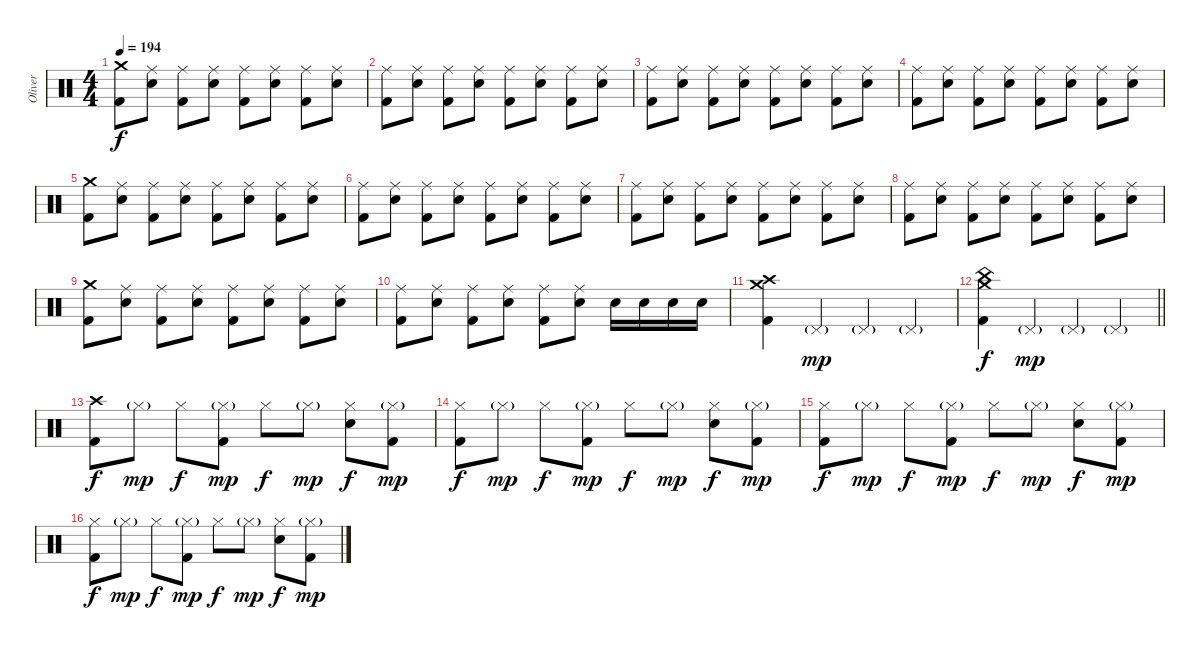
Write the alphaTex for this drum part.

\track ("Oliver" "Oliver") {instrument percussion}
\staff {score}
\articulation defaults
\ts (4 4)
\tempo 194
\clef neutral
\ks c
("Crash medium (hit)" "Kick (hit) 2").8{dy f} ("Ride (middle)" "Electric Snare (hit)").8 ("Ride (middle)" "Kick (hit) 2").8 ("Ride (middle)" "Electric Snare (hit)").8 ("Ride (middle)" "Kick (hit) 2").8 ("Ride (middle)" "Electric Snare (hit)").8 ("Ride (middle)" "Kick (hit) 2").8 ("Ride (middle)" "Electric Snare (hit)").8 |
("Ride (middle)" "Kick (hit) 2").8 ("Ride (middle)" "Electric Snare (hit)").8 ("Ride (middle)" "Kick (hit) 2").8 ("Ride (middle)" "Electric Snare (hit)").8 ("Ride (middle)" "Kick (hit) 2").8 ("Ride (middle)" "Electric Snare (hit)").8 ("Ride (middle)" "Kick (hit) 2").8 ("Ride (middle)" "Electric Snare (hit)").8 |
("Ride (middle)" "Kick (hit) 2").8 ("Ride (middle)" "Electric Snare (hit)").8 ("Ride (middle)" "Kick (hit) 2").8 ("Ride (middle)" "Electric Snare (hit)").8 ("Ride (middle)" "Kick (hit) 2").8 ("Ride (middle)" "Electric Snare (hit)").8 ("Ride (middle)" "Kick (hit) 2").8 ("Ride (middle)" "Electric Snare (hit)").8 |
("Ride (middle)" "Kick (hit) 2").8 ("Ride (middle)" "Electric Snare (hit)").8 ("Ride (middle)" "Kick (hit) 2").8 ("Ride (middle)" "Electric Snare (hit)").8 ("Ride (middle)" "Kick (hit) 2").8 ("Ride (middle)" "Electric Snare (hit)").8 ("Ride (middle)" "Kick (hit) 2").8 ("Ride (middle)" "Electric Snare (hit)").8 |
("Crash medium (hit)" "Kick (hit) 2").8 ("Ride (middle)" "Electric Snare (hit)").8 ("Ride (middle)" "Kick (hit) 2").8 ("Ride (middle)" "Electric Snare (hit)").8 ("Ride (middle)" "Kick (hit) 2").8 ("Ride (middle)" "Electric Snare (hit)").8 ("Ride (middle)" "Kick (hit) 2").8 ("Ride (middle)" "Electric Snare (hit)").8 |
("Ride (middle)" "Kick (hit) 2").8 ("Ride (middle)" "Electric Snare (hit)").8 ("Ride (middle)" "Kick (hit) 2").8 ("Ride (middle)" "Electric Snare (hit)").8 ("Ride (middle)" "Kick (hit) 2").8 ("Ride (middle)" "Electric Snare (hit)").8 ("Ride (middle)" "Kick (hit) 2").8 ("Ride (middle)" "Electric Snare (hit)").8 |
("Ride (middle)" "Kick (hit) 2").8 ("Ride (middle)" "Electric Snare (hit)").8 ("Ride (middle)" "Kick (hit) 2").8 ("Ride (middle)" "Electric Snare (hit)").8 ("Ride (middle)" "Kick (hit) 2").8 ("Ride (middle)" "Electric Snare (hit)").8 ("Ride (middle)" "Kick (hit) 2").8 ("Ride (middle)" "Electric Snare (hit)").8 |
("Ride (middle)" "Kick (hit) 2").8 ("Ride (middle)" "Electric Snare (hit)").8 ("Ride (middle)" "Kick (hit) 2").8 ("Ride (middle)" "Electric Snare (hit)").8 ("Ride (middle)" "Kick (hit) 2").8 ("Ride (middle)" "Electric Snare (hit)").8 ("Ride (middle)" "Kick (hit) 2").8 ("Ride (middle)" "Electric Snare (hit)").8 |
("Crash medium (hit)" "Kick (hit) 2").8 ("Ride (middle)" "Electric Snare (hit)").8 ("Ride (middle)" "Kick (hit) 2").8 ("Ride (middle)" "Electric Snare (hit)").8 ("Ride (middle)" "Kick (hit) 2").8 ("Ride (middle)" "Electric Snare (hit)").8 ("Ride (middle)" "Kick (hit) 2").8 ("Ride (middle)" "Electric Snare (hit)").8 |
("Ride (middle)" "Kick (hit) 2").8 ("Ride (middle)" "Electric Snare (hit)").8 ("Ride (middle)" "Kick (hit) 2").8 ("Ride (middle)" "Electric Snare (hit)").8 ("Ride (middle)" "Kick (hit) 2").8 ("Ride (middle)" "Electric Snare (hit)").8 "Electric Snare (hit)".16 "Electric Snare (hit)".16 "Electric Snare (hit)".16 "Electric Snare (hit)".16 |
("Crash high (hit)" "Crash medium (hit)" "Kick (hit) 2").4 "Pedal Hi-Hat (hit)"{g}.4{dy mp} "Pedal Hi-Hat (hit)"{g}.4 "Pedal Hi-Hat (hit)"{g}.4 |
\barLineRight lightlight
("China (hit)" "Crash medium (hit)" "Kick (hit) 2").4{dy f} "Pedal Hi-Hat (hit)"{g}.4{dy mp} "Pedal Hi-Hat (hit)"{g}.4 "Pedal Hi-Hat (hit)"{g}.4 |
\section ("" "")
("Crash high (hit)" "Kick (hit) 2").8{dy f} "Hi-Hat (closed)"{g}.8{dy mp} "Hi-Hat (closed)".8{dy f} ("Hi-Hat (closed)"{g} "Kick (hit) 2").8{dy mp} "Hi-Hat (closed)".8{dy f} "Hi-Hat (closed)"{g}.8{dy mp} ("Hi-Hat (closed)" "Electric Snare (hit)").8{dy f} ("Hi-Hat (closed)"{g} "Kick (hit) 2").8{dy mp} |
("Hi-Hat (closed)" "Kick (hit) 2").8{dy f} "Hi-Hat (closed)"{g}.8{dy mp} "Hi-Hat (closed)".8{dy f} ("Hi-Hat (closed)"{g} "Kick (hit) 2").8{dy mp} "Hi-Hat (closed)".8{dy f} "Hi-Hat (closed)"{g}.8{dy mp} ("Hi-Hat (closed)" "Electric Snare (hit)").8{dy f} ("Hi-Hat (closed)"{g} "Kick (hit) 2").8{dy mp} |
("Hi-Hat (closed)" "Kick (hit) 2").8{dy f} "Hi-Hat (closed)"{g}.8{dy mp} "Hi-Hat (closed)".8{dy f} ("Hi-Hat (closed)"{g} "Kick (hit) 2").8{dy mp} "Hi-Hat (closed)".8{dy f} "Hi-Hat (closed)"{g}.8{dy mp} ("Hi-Hat (closed)" "Electric Snare (hit)").8{dy f} ("Hi-Hat (closed)"{g} "Kick (hit) 2").8{dy mp} |
("Hi-Hat (closed)" "Kick (hit) 2").8{dy f} "Hi-Hat (closed)"{g}.8{dy mp} "Hi-Hat (closed)".8{dy f} ("Hi-Hat (closed)"{g} "Kick (hit) 2").8{dy mp} "Hi-Hat (closed)".8{dy f} "Hi-Hat (closed)"{g}.8{dy mp} ("Hi-Hat (closed)" "Electric Snare (hit)").8{dy f} ("Hi-Hat (closed)"{g} "Kick (hit) 2").8{dy mp}
